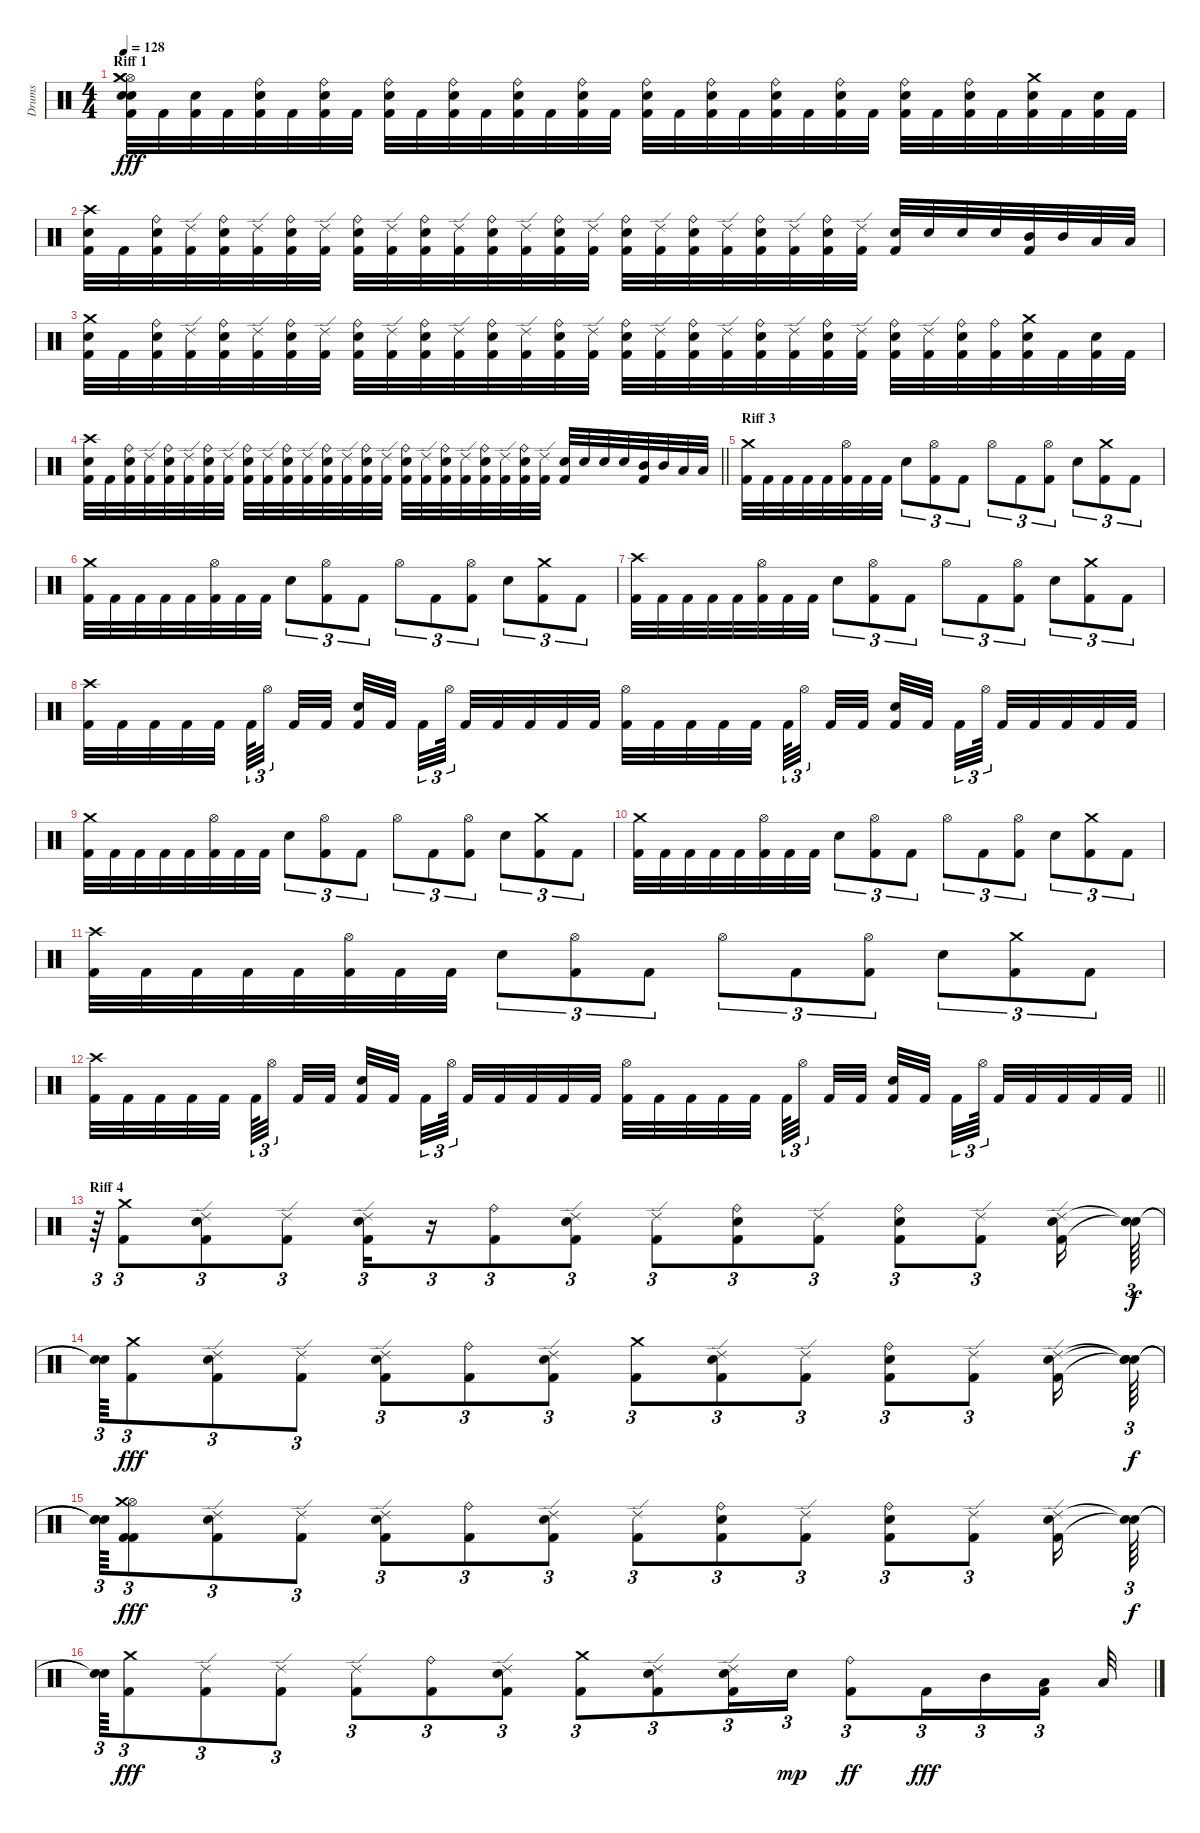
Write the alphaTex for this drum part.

\track ("Drums" "Drums") {instrument percussion}
\staff {score}
\articulation defaults
\ts (4 4)
\section ("" "Riff 1")
\tempo 128
\clef neutral
\ks c
("Snare (hit) 2" "Hi-Hat (open)" "Kick (hit) 2" "Snare (hit) 2" "Crash medium (hit)" "Crash medium (hit)").32{dy fff} "Kick (hit) 2".32 ("Kick (hit) 2" "Snare (hit) 2").32 "Kick (hit) 2".32 ("Kick (hit) 2" "Snare (hit) 2" "Ride (bell)").32 "Kick (hit) 2".32 ("Kick (hit) 2" "Snare (hit) 2" "Ride (bell)").32 "Kick (hit) 2".32 ("Kick (hit) 2" "Snare (hit) 2" "Ride (bell)").32 "Kick (hit) 2".32 ("Kick (hit) 2" "Snare (hit) 2" "Ride (bell)").32 "Kick (hit) 2".32 ("Kick (hit) 2" "Snare (hit) 2" "Ride (bell)").32 "Kick (hit) 2".32 ("Kick (hit) 2" "Snare (hit) 2" "Ride (bell)").32 "Kick (hit) 2".32 ("Kick (hit) 2" "Snare (hit) 2" "Ride (bell)").32 "Kick (hit) 2".32 ("Kick (hit) 2" "Snare (hit) 2" "Ride (bell)").32 "Kick (hit) 2".32 ("Kick (hit) 2" "Snare (hit) 2" "Ride (bell)").32 "Kick (hit) 2".32 ("Kick (hit) 2" "Snare (hit) 2" "Ride (bell)").32 "Kick (hit) 2".32 ("Kick (hit) 2" "Snare (hit) 2" "Ride (bell)").32 "Kick (hit) 2".32 ("Kick (hit) 2" "Snare (hit) 2" "Ride (bell)").32 "Kick (hit) 2".32 ("Kick (hit) 2" "Snare (hit) 2" "Crash medium (hit)").32 "Kick (hit) 2".32 ("Kick (hit) 2" "Snare (hit) 2").32 "Kick (hit) 2".32 |
("Kick (hit) 2" "Snare (hit) 2" "Crash high (hit)").32 "Kick (hit) 2".32 ("Kick (hit) 2" "Snare (hit) 2" "Ride (bell)").32 ("Kick (hit) 2" "Ride (edge) 2").32 ("Kick (hit) 2" "Snare (hit) 2" "Ride (bell)").32 ("Kick (hit) 2" "Ride (edge) 2").32 ("Kick (hit) 2" "Snare (hit) 2" "Ride (bell)").32 ("Kick (hit) 2" "Ride (edge) 2").32 ("Kick (hit) 2" "Snare (hit) 2" "Ride (bell)").32 ("Kick (hit) 2" "Ride (edge) 2").32 ("Kick (hit) 2" "Snare (hit) 2" "Ride (bell)").32 ("Kick (hit) 2" "Ride (edge) 2").32 ("Kick (hit) 2" "Snare (hit) 2" "Ride (bell)").32 ("Kick (hit) 2" "Ride (edge) 2").32 ("Kick (hit) 2" "Snare (hit) 2" "Ride (bell)").32 ("Kick (hit) 2" "Ride (edge) 2").32 ("Kick (hit) 2" "Snare (hit) 2" "Ride (bell)").32 ("Kick (hit) 2" "Ride (edge) 2").32 ("Kick (hit) 2" "Snare (hit) 2" "Ride (bell)").32 ("Kick (hit) 2" "Ride (edge) 2").32 ("Kick (hit) 2" "Snare (hit) 2" "Ride (bell)").32 ("Kick (hit) 2" "Ride (edge) 2").32 ("Kick (hit) 2" "Snare (hit) 2" "Ride (bell)").32 ("Kick (hit) 2" "Ride (edge) 2").32 ("Kick (hit) 2" "Snare (hit) 2").32 "Snare (hit) 2".32 "Snare (hit) 2".32 "Snare (hit) 2".32 ("Kick (hit) 2" "Mid Tom (hit)").32 "Mid Tom (hit)".32 "Low Tom (hit)".32 "Low Tom (hit)".32 |
("Kick (hit) 2" "Snare (hit) 2" "Crash medium (hit)").32 "Kick (hit) 2".32 ("Kick (hit) 2" "Snare (hit) 2" "Ride (bell)").32 ("Kick (hit) 2" "Ride (edge) 2").32 ("Kick (hit) 2" "Snare (hit) 2" "Ride (bell)").32 ("Kick (hit) 2" "Ride (edge) 2").32 ("Kick (hit) 2" "Snare (hit) 2" "Ride (bell)").32 ("Kick (hit) 2" "Ride (edge) 2").32 ("Kick (hit) 2" "Snare (hit) 2" "Ride (bell)").32 ("Kick (hit) 2" "Ride (edge) 2").32 ("Kick (hit) 2" "Snare (hit) 2" "Ride (bell)").32 ("Kick (hit) 2" "Ride (edge) 2").32 ("Kick (hit) 2" "Snare (hit) 2" "Ride (bell)").32 ("Kick (hit) 2" "Ride (edge) 2").32 ("Kick (hit) 2" "Snare (hit) 2" "Ride (bell)").32 ("Kick (hit) 2" "Ride (edge) 2").32 ("Kick (hit) 2" "Snare (hit) 2" "Ride (bell)").32 ("Kick (hit) 2" "Ride (edge) 2").32 ("Kick (hit) 2" "Snare (hit) 2" "Ride (bell)").32 ("Kick (hit) 2" "Ride (edge) 2").32 ("Kick (hit) 2" "Snare (hit) 2" "Ride (bell)").32 ("Kick (hit) 2" "Ride (edge) 2").32 ("Kick (hit) 2" "Snare (hit) 2" "Ride (bell)").32 ("Kick (hit) 2" "Ride (edge) 2").32 ("Kick (hit) 2" "Snare (hit) 2" "Ride (bell)").32 ("Kick (hit) 2" "Ride (edge) 2").32 ("Kick (hit) 2" "Snare (hit) 2" "Ride (bell)").32 ("Kick (hit) 2" "Ride (bell)").32 ("Kick (hit) 2" "Snare (hit) 2" "Crash medium (hit)").32 "Kick (hit) 2".32 ("Kick (hit) 2" "Snare (hit) 2").32 "Kick (hit) 2".32 |
\barLineRight lightlight
("Kick (hit) 2" "Snare (hit) 2" "Crash high (hit)").32 "Kick (hit) 2".32 ("Kick (hit) 2" "Snare (hit) 2" "Ride (bell)").32 ("Kick (hit) 2" "Ride (edge) 2").32 ("Kick (hit) 2" "Snare (hit) 2" "Ride (bell)").32 ("Kick (hit) 2" "Ride (edge) 2").32 ("Kick (hit) 2" "Snare (hit) 2" "Ride (bell)").32 ("Kick (hit) 2" "Ride (edge) 2").32 ("Kick (hit) 2" "Snare (hit) 2" "Ride (bell)").32 ("Kick (hit) 2" "Ride (edge) 2").32 ("Kick (hit) 2" "Snare (hit) 2" "Ride (bell)").32 ("Kick (hit) 2" "Ride (edge) 2").32 ("Kick (hit) 2" "Snare (hit) 2" "Ride (bell)").32 ("Kick (hit) 2" "Ride (edge) 2").32 ("Kick (hit) 2" "Snare (hit) 2" "Ride (bell)").32 ("Kick (hit) 2" "Ride (edge) 2").32 ("Kick (hit) 2" "Snare (hit) 2" "Ride (bell)").32 ("Kick (hit) 2" "Ride (edge) 2").32 ("Kick (hit) 2" "Snare (hit) 2" "Ride (bell)").32 ("Kick (hit) 2" "Ride (edge) 2").32 ("Kick (hit) 2" "Snare (hit) 2" "Ride (bell)").32 ("Kick (hit) 2" "Ride (edge) 2").32 ("Kick (hit) 2" "Snare (hit) 2" "Ride (bell)").32 ("Kick (hit) 2" "Ride (edge) 2").32 ("Kick (hit) 2" "Snare (hit) 2").32 "Snare (hit) 2".32 "Snare (hit) 2".32 "Snare (hit) 2".32 ("Kick (hit) 2" "Mid Tom (hit)").32 "Mid Tom (hit)".32 "Low Tom (hit)".32 "Low Tom (hit)".32 |
\section ("" "Riff 3")
("Kick (hit) 2" "Crash medium (hit)").32 "Kick (hit) 2".32 "Kick (hit) 2".32 "Kick (hit) 2".32 "Kick (hit) 2".32 ("Kick (hit) 2" "Hi-Hat (open)").32 "Kick (hit) 2".32 "Kick (hit) 2".32 "Snare (hit) 2".8{tu (3 2)} ("Kick (hit) 2" "Hi-Hat (open)").8{tu (3 2)} "Kick (hit) 2".8{tu (3 2)} "Hi-Hat (open)".8{tu (3 2)} "Kick (hit) 2".8{tu (3 2)} ("Kick (hit) 2" "Hi-Hat (open)").8{tu (3 2)} "Snare (hit) 2".8{tu (3 2)} ("Kick (hit) 2" "Crash medium (hit)").8{tu (3 2)} "Kick (hit) 2".8{tu (3 2)} |
("Kick (hit) 2" "Crash medium (hit)").32 "Kick (hit) 2".32 "Kick (hit) 2".32 "Kick (hit) 2".32 "Kick (hit) 2".32 ("Kick (hit) 2" "Hi-Hat (open)").32 "Kick (hit) 2".32 "Kick (hit) 2".32 "Snare (hit) 2".8{tu (3 2)} ("Kick (hit) 2" "Hi-Hat (open)").8{tu (3 2)} "Kick (hit) 2".8{tu (3 2)} "Hi-Hat (open)".8{tu (3 2)} "Kick (hit) 2".8{tu (3 2)} ("Kick (hit) 2" "Hi-Hat (open)").8{tu (3 2)} "Snare (hit) 2".8{tu (3 2)} ("Kick (hit) 2" "Crash medium (hit)").8{tu (3 2)} "Kick (hit) 2".8{tu (3 2)} |
("Kick (hit) 2" "Crash high (hit)").32 "Kick (hit) 2".32 "Kick (hit) 2".32 "Kick (hit) 2".32 "Kick (hit) 2".32 ("Kick (hit) 2" "Hi-Hat (open)").32 "Kick (hit) 2".32 "Kick (hit) 2".32 "Snare (hit) 2".8{tu (3 2)} ("Kick (hit) 2" "Hi-Hat (open)").8{tu (3 2)} "Kick (hit) 2".8{tu (3 2)} "Hi-Hat (open)".8{tu (3 2)} "Kick (hit) 2".8{tu (3 2)} ("Kick (hit) 2" "Hi-Hat (open)").8{tu (3 2)} "Snare (hit) 2".8{tu (3 2)} ("Kick (hit) 2" "Crash medium (hit)").8{tu (3 2)} "Kick (hit) 2".8{tu (3 2)} |
("Kick (hit) 2" "Crash high (hit)").32 "Kick (hit) 2".32 "Kick (hit) 2".32 "Kick (hit) 2".32 "Kick (hit) 2".32{beam splitsecondary} "Kick (hit) 2".64{tu (3 2)} "Hi-Hat (open)".32{tu (3 2) beam splitsecondary} "Kick (hit) 2".32 "Kick (hit) 2".32 ("Kick (hit) 2" "Snare (hit) 2").32 "Kick (hit) 2".32{beam splitsecondary} "Kick (hit) 2".32{tu (3 2)} "Hi-Hat (open)".64{tu (3 2) beam splitsecondary} "Kick (hit) 2".32 "Kick (hit) 2".32 "Kick (hit) 2".32 "Kick (hit) 2".32 "Kick (hit) 2".32 ("Kick (hit) 2" "Hi-Hat (open)").32 "Kick (hit) 2".32 "Kick (hit) 2".32 "Kick (hit) 2".32 "Kick (hit) 2".32{beam splitsecondary} "Kick (hit) 2".64{tu (3 2)} "Hi-Hat (open)".32{tu (3 2) beam splitsecondary} "Kick (hit) 2".32 "Kick (hit) 2".32 ("Kick (hit) 2" "Snare (hit) 2").32 "Kick (hit) 2".32{beam splitsecondary} "Kick (hit) 2".32{tu (3 2)} "Hi-Hat (open)".64{tu (3 2) beam splitsecondary} "Kick (hit) 2".32 "Kick (hit) 2".32 "Kick (hit) 2".32 "Kick (hit) 2".32 "Kick (hit) 2".32 |
("Kick (hit) 2" "Crash medium (hit)").32 "Kick (hit) 2".32 "Kick (hit) 2".32 "Kick (hit) 2".32 "Kick (hit) 2".32 ("Kick (hit) 2" "Hi-Hat (open)").32 "Kick (hit) 2".32 "Kick (hit) 2".32 "Snare (hit) 2".8{tu (3 2)} ("Kick (hit) 2" "Hi-Hat (open)").8{tu (3 2)} "Kick (hit) 2".8{tu (3 2)} "Hi-Hat (open)".8{tu (3 2)} "Kick (hit) 2".8{tu (3 2)} ("Kick (hit) 2" "Hi-Hat (open)").8{tu (3 2)} "Snare (hit) 2".8{tu (3 2)} ("Kick (hit) 2" "Crash medium (hit)").8{tu (3 2)} "Kick (hit) 2".8{tu (3 2)} |
("Kick (hit) 2" "Crash medium (hit)").32 "Kick (hit) 2".32 "Kick (hit) 2".32 "Kick (hit) 2".32 "Kick (hit) 2".32 ("Kick (hit) 2" "Hi-Hat (open)").32 "Kick (hit) 2".32 "Kick (hit) 2".32 "Snare (hit) 2".8{tu (3 2)} ("Kick (hit) 2" "Hi-Hat (open)").8{tu (3 2)} "Kick (hit) 2".8{tu (3 2)} "Hi-Hat (open)".8{tu (3 2)} "Kick (hit) 2".8{tu (3 2)} ("Kick (hit) 2" "Hi-Hat (open)").8{tu (3 2)} "Snare (hit) 2".8{tu (3 2)} ("Kick (hit) 2" "Crash medium (hit)").8{tu (3 2)} "Kick (hit) 2".8{tu (3 2)} |
("Kick (hit) 2" "Crash high (hit)").32 "Kick (hit) 2".32 "Kick (hit) 2".32 "Kick (hit) 2".32 "Kick (hit) 2".32 ("Kick (hit) 2" "Hi-Hat (open)").32 "Kick (hit) 2".32 "Kick (hit) 2".32 "Snare (hit) 2".8{tu (3 2)} ("Kick (hit) 2" "Hi-Hat (open)").8{tu (3 2)} "Kick (hit) 2".8{tu (3 2)} "Hi-Hat (open)".8{tu (3 2)} "Kick (hit) 2".8{tu (3 2)} ("Kick (hit) 2" "Hi-Hat (open)").8{tu (3 2)} "Snare (hit) 2".8{tu (3 2)} ("Kick (hit) 2" "Crash medium (hit)").8{tu (3 2)} "Kick (hit) 2".8{tu (3 2)} |
\barLineRight lightlight
("Kick (hit) 2" "Crash high (hit)").32 "Kick (hit) 2".32 "Kick (hit) 2".32 "Kick (hit) 2".32 "Kick (hit) 2".32{beam splitsecondary} "Kick (hit) 2".64{tu (3 2)} "Hi-Hat (open)".32{tu (3 2) beam splitsecondary} "Kick (hit) 2".32 "Kick (hit) 2".32 ("Kick (hit) 2" "Snare (hit) 2").32 "Kick (hit) 2".32{beam splitsecondary} "Kick (hit) 2".32{tu (3 2)} "Hi-Hat (open)".64{tu (3 2) beam splitsecondary} "Kick (hit) 2".32 "Kick (hit) 2".32 "Kick (hit) 2".32 "Kick (hit) 2".32 "Kick (hit) 2".32 ("Kick (hit) 2" "Hi-Hat (open)").32 "Kick (hit) 2".32 "Kick (hit) 2".32 "Kick (hit) 2".32 "Kick (hit) 2".32{beam splitsecondary} "Kick (hit) 2".64{tu (3 2)} "Hi-Hat (open)".32{tu (3 2) beam splitsecondary} "Kick (hit) 2".32 "Kick (hit) 2".32 ("Kick (hit) 2" "Snare (hit) 2").32 "Kick (hit) 2".32{beam splitsecondary} "Kick (hit) 2".32{tu (3 2)} "Hi-Hat (open)".64{tu (3 2) beam splitsecondary} "Kick (hit) 2".32 "Kick (hit) 2".32 "Kick (hit) 2".32 "Kick (hit) 2".32 "Kick (hit) 2".32 |
\section ("" "Riff 4")
r.64{tu (3 2)} ("Kick (hit) 2" "Crash medium (hit)").8{tu (3 2)} ("Kick (hit) 2" "Ride (edge) 2" "Snare (hit) 2").8{tu (3 2)} ("Kick (hit) 2" "Ride (edge) 2").8{tu (3 2)} ("Kick (hit) 2" "Ride (edge) 2" "Snare (hit) 2").16{tu (3 2)} r.16{tu (3 2)} ("Kick (hit) 2" "Ride (bell)").8{tu (3 2)} ("Kick (hit) 2" "Ride (edge) 2" "Snare (hit) 2").8{tu (3 2)} ("Kick (hit) 2" "Ride (edge) 2").8{tu (3 2)} ("Kick (hit) 2" "Ride (bell)" "Snare (hit) 2").8{tu (3 2)} ("Kick (hit) 2" "Ride (edge) 2").8{tu (3 2)} ("Kick (hit) 2" "Ride (bell)" "Snare (hit) 2").8{tu (3 2)} ("Kick (hit) 2" "Ride (edge) 2").8{tu (3 2)} ("Kick (hit) 2" "Ride (edge) 2" "Snare (hit) 2").16 ("Snare (hit)"{t} "Snare (hit)"{t}).64{tu (3 2) dy f} |
("Snare (hit)"{t} "Snare (hit)"{t}).64{tu (3 2)} ("Kick (hit) 2" "Crash medium (hit)").8{tu (3 2) dy fff} ("Kick (hit) 2" "Ride (edge) 2" "Snare (hit) 2").8{tu (3 2)} ("Kick (hit) 2" "Ride (edge) 2").8{tu (3 2)} ("Kick (hit) 2" "Ride (edge) 2" "Snare (hit) 2").8{tu (3 2)} ("Kick (hit) 2" "Ride (bell)").8{tu (3 2)} ("Kick (hit) 2" "Snare (hit) 2" "Ride (edge) 2").8{tu (3 2)} ("Kick (hit) 2" "Crash medium (hit)").8{tu (3 2)} ("Kick (hit) 2" "Snare (hit) 2" "Ride (edge) 2").8{tu (3 2)} ("Kick (hit) 2" "Ride (edge) 2").8{tu (3 2)} ("Kick (hit) 2" "Ride (bell)" "Snare (hit) 2").8{tu (3 2)} ("Kick (hit) 2" "Ride (edge) 2").8{tu (3 2)} ("Kick (hit) 2" "Snare (hit) 2" "Ride (edge) 2").16 ("Snare (hit)"{t} "Snare (hit)"{t} "Snare (hit)"{t}).64{tu (3 2) dy f} |
("Snare (hit)"{t} "Snare (hit)"{t} "Snare (hit)"{t}).64{tu (3 2)} ("Kick (hit) 2" "Hi-Hat (open)" "Kick (hit) 2" "Crash medium (hit)").8{tu (3 2) dy fff} ("Kick (hit) 2" "Ride (edge) 2" "Snare (hit) 2").8{tu (3 2)} ("Kick (hit) 2" "Ride (edge) 2").8{tu (3 2)} ("Kick (hit) 2" "Ride (edge) 2" "Snare (hit) 2").8{tu (3 2)} ("Kick (hit) 2" "Ride (bell)").8{tu (3 2)} ("Kick (hit) 2" "Ride (edge) 2" "Snare (hit) 2").8{tu (3 2)} ("Kick (hit) 2" "Ride (edge) 2").8{tu (3 2)} ("Kick (hit) 2" "Ride (bell)" "Snare (hit) 2").8{tu (3 2)} ("Kick (hit) 2" "Ride (edge) 2").8{tu (3 2)} ("Kick (hit) 2" "Ride (bell)" "Snare (hit) 2").8{tu (3 2)} ("Kick (hit) 2" "Ride (edge) 2").8{tu (3 2)} ("Kick (hit) 2" "Ride (edge) 2" "Snare (hit) 2").16 ("Snare (hit)"{t} "Snare (hit)"{t}).64{tu (3 2) dy f} |
("Snare (hit)"{t} "Snare (hit)"{t}).64{tu (3 2)} ("Kick (hit) 2" "Crash medium (hit)").8{tu (3 2) dy fff} ("Kick (hit) 2" "Ride (edge) 2").8{tu (3 2)} ("Kick (hit) 2" "Ride (edge) 2").8{tu (3 2)} ("Kick (hit) 2" "Ride (edge) 2").8{tu (3 2)} ("Kick (hit) 2" "Ride (bell)").8{tu (3 2)} ("Kick (hit) 2" "Snare (hit) 2" "Ride (edge) 2").8{tu (3 2)} ("Kick (hit) 2" "Crash medium (hit)").8{tu (3 2)} ("Kick (hit) 2" "Snare (hit) 2" "Ride (edge) 2").8{tu (3 2)} ("Kick (hit) 2" "Snare (hit) 2" "Ride (edge) 2").16{tu (3 2)} "Snare (hit) 2".16{tu (3 2) dy mp} ("Kick (hit) 2" "Ride (bell)").8{tu (3 2) dy ff} "Kick (hit) 2".16{tu (3 2) dy fff} "Mid Tom (hit)".16{tu (3 2)} ("Kick (hit) 2" "Low Tom (hit)").16{tu (3 2) beam splitsecondary} "Low Tom (hit)".32
